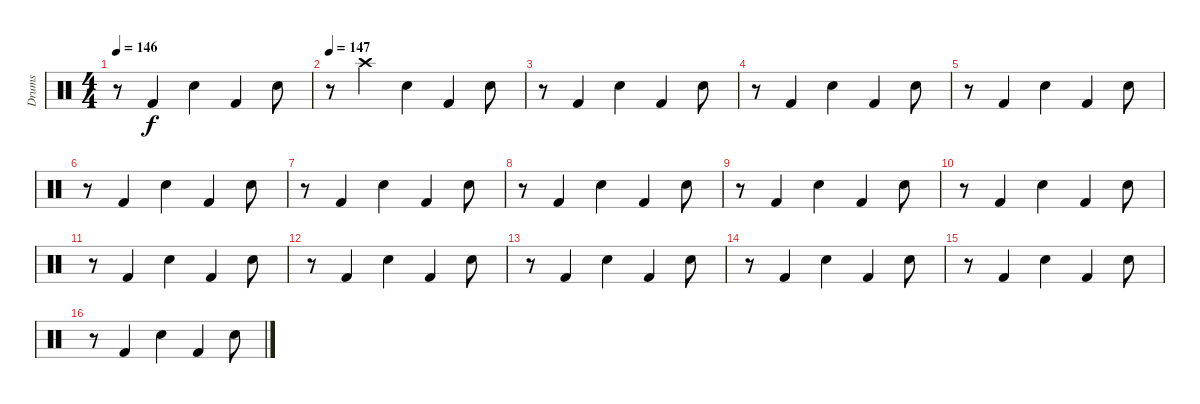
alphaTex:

\track ("Drums" "Drums") {instrument percussion}
\staff {score}
\articulation defaults
\ts (4 4)
\tempo 146
\clef neutral
\ks c
r.8{dy f} "Kick (hit) 2".4 "Snare (hit) 2".4 "Kick (hit) 2".4 "Snare (hit) 2".8 |
\tempo 147
r.8 "Crash high (hit)".4 "Snare (hit) 2".4 "Kick (hit) 2".4 "Snare (hit) 2".8 |
r.8 "Kick (hit) 2".4 "Snare (hit) 2".4 "Kick (hit) 2".4 "Snare (hit) 2".8 |
r.8 "Kick (hit) 2".4 "Snare (hit) 2".4 "Kick (hit) 2".4 "Snare (hit) 2".8 |
r.8 "Kick (hit) 2".4 "Snare (hit) 2".4 "Kick (hit) 2".4 "Snare (hit) 2".8 |
r.8 "Kick (hit) 2".4 "Snare (hit) 2".4 "Kick (hit) 2".4 "Snare (hit) 2".8 |
r.8 "Kick (hit) 2".4 "Snare (hit) 2".4 "Kick (hit) 2".4 "Snare (hit) 2".8 |
r.8 "Kick (hit) 2".4 "Snare (hit) 2".4 "Kick (hit) 2".4 "Snare (hit) 2".8 |
r.8 "Kick (hit) 2".4 "Snare (hit) 2".4 "Kick (hit) 2".4 "Snare (hit) 2".8 |
r.8 "Kick (hit) 2".4 "Snare (hit) 2".4 "Kick (hit) 2".4 "Snare (hit) 2".8 |
r.8 "Kick (hit) 2".4 "Snare (hit) 2".4 "Kick (hit) 2".4 "Snare (hit) 2".8 |
r.8 "Kick (hit) 2".4 "Snare (hit) 2".4 "Kick (hit) 2".4 "Snare (hit) 2".8 |
r.8 "Kick (hit) 2".4 "Snare (hit) 2".4 "Kick (hit) 2".4 "Snare (hit) 2".8 |
r.8 "Kick (hit) 2".4 "Snare (hit) 2".4 "Kick (hit) 2".4 "Snare (hit) 2".8 |
r.8 "Kick (hit) 2".4 "Snare (hit) 2".4 "Kick (hit) 2".4 "Snare (hit) 2".8 |
r.8 "Kick (hit) 2".4 "Snare (hit) 2".4 "Kick (hit) 2".4 "Snare (hit) 2".8
